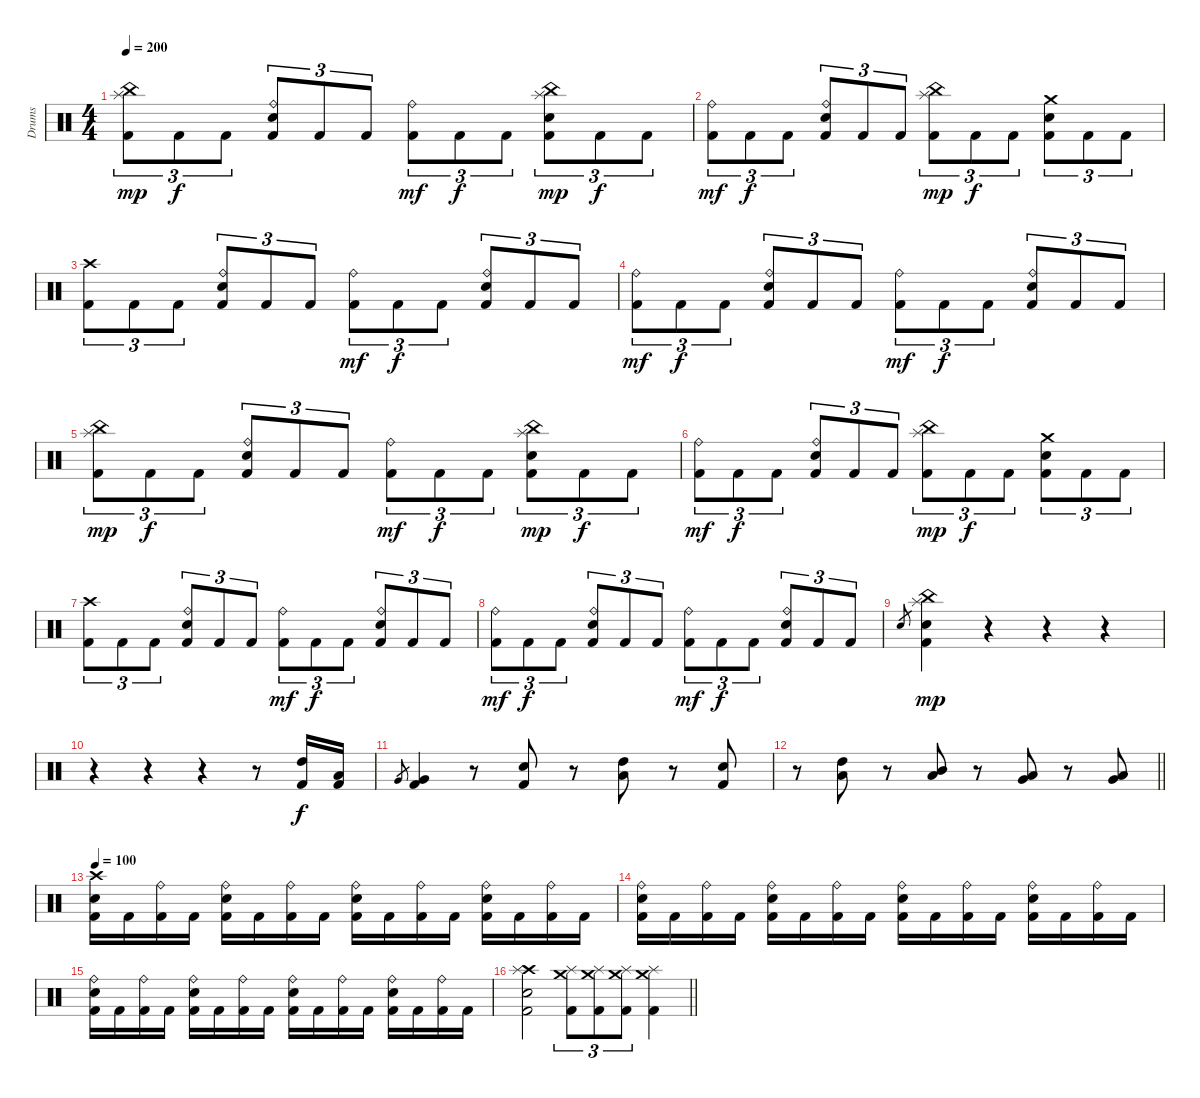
\track ("Drums" "Drums") {instrument percussion}
\staff {score}
\articulation defaults
\ts (4 4)
\tempo 200
\clef neutral
\ks c
("China (hit)" "Splash (hit)" "Kick (hit) 2").8{tu (3 2) dy mp} "Kick (hit) 2".8{tu (3 2) dy f} "Kick (hit) 2".8{tu (3 2)} ("Ride (bell)" "Electric Snare (hit)" "Kick (hit) 2").8{tu (3 2)} "Kick (hit) 2".8{tu (3 2)} "Kick (hit) 2".8{tu (3 2)} ("Ride (bell)" "Kick (hit) 2").8{tu (3 2) dy mf} "Kick (hit) 2".8{tu (3 2) dy f} "Kick (hit) 2".8{tu (3 2)} ("China (hit)" "Splash (hit)" "Electric Snare (hit)" "Kick (hit) 2").8{tu (3 2) dy mp} "Kick (hit) 2".8{tu (3 2) dy f} "Kick (hit) 2".8{tu (3 2)} |
("Ride (bell)" "Kick (hit) 2").8{tu (3 2) dy mf} "Kick (hit) 2".8{tu (3 2) dy f} "Kick (hit) 2".8{tu (3 2)} ("Ride (bell)" "Electric Snare (hit)" "Kick (hit) 2").8{tu (3 2)} "Kick (hit) 2".8{tu (3 2)} "Kick (hit) 2".8{tu (3 2)} ("China (hit)" "Splash (hit)" "Kick (hit) 2").8{tu (3 2) dy mp} "Kick (hit) 2".8{tu (3 2) dy f} "Kick (hit) 2".8{tu (3 2)} ("Crash medium (hit)" "Electric Snare (hit)" "Kick (hit) 2").8{tu (3 2)} "Kick (hit) 2".8{tu (3 2)} "Kick (hit) 2".8{tu (3 2)} |
("Crash high (hit)" "Kick (hit) 2").8{tu (3 2)} "Kick (hit) 2".8{tu (3 2)} "Kick (hit) 2".8{tu (3 2)} ("Ride (bell)" "Electric Snare (hit)" "Kick (hit) 2").8{tu (3 2)} "Kick (hit) 2".8{tu (3 2)} "Kick (hit) 2".8{tu (3 2)} ("Ride (bell)" "Kick (hit) 2").8{tu (3 2) dy mf} "Kick (hit) 2".8{tu (3 2) dy f} "Kick (hit) 2".8{tu (3 2)} ("Ride (bell)" "Electric Snare (hit)" "Kick (hit) 2").8{tu (3 2)} "Kick (hit) 2".8{tu (3 2)} "Kick (hit) 2".8{tu (3 2)} |
("Ride (bell)" "Kick (hit) 2").8{tu (3 2) dy mf} "Kick (hit) 2".8{tu (3 2) dy f} "Kick (hit) 2".8{tu (3 2)} ("Ride (bell)" "Electric Snare (hit)" "Kick (hit) 2").8{tu (3 2)} "Kick (hit) 2".8{tu (3 2)} "Kick (hit) 2".8{tu (3 2)} ("Ride (bell)" "Kick (hit) 2").8{tu (3 2) dy mf} "Kick (hit) 2".8{tu (3 2) dy f} "Kick (hit) 2".8{tu (3 2)} ("Ride (bell)" "Electric Snare (hit)" "Kick (hit) 2").8{tu (3 2)} "Kick (hit) 2".8{tu (3 2)} "Kick (hit) 2".8{tu (3 2)} |
("China (hit)" "Splash (hit)" "Kick (hit) 2").8{tu (3 2) dy mp} "Kick (hit) 2".8{tu (3 2) dy f} "Kick (hit) 2".8{tu (3 2)} ("Ride (bell)" "Electric Snare (hit)" "Kick (hit) 2").8{tu (3 2)} "Kick (hit) 2".8{tu (3 2)} "Kick (hit) 2".8{tu (3 2)} ("Ride (bell)" "Kick (hit) 2").8{tu (3 2) dy mf} "Kick (hit) 2".8{tu (3 2) dy f} "Kick (hit) 2".8{tu (3 2)} ("China (hit)" "Splash (hit)" "Electric Snare (hit)" "Kick (hit) 2").8{tu (3 2) dy mp} "Kick (hit) 2".8{tu (3 2) dy f} "Kick (hit) 2".8{tu (3 2)} |
("Ride (bell)" "Kick (hit) 2").8{tu (3 2) dy mf} "Kick (hit) 2".8{tu (3 2) dy f} "Kick (hit) 2".8{tu (3 2)} ("Ride (bell)" "Electric Snare (hit)" "Kick (hit) 2").8{tu (3 2)} "Kick (hit) 2".8{tu (3 2)} "Kick (hit) 2".8{tu (3 2)} ("China (hit)" "Splash (hit)" "Kick (hit) 2").8{tu (3 2) dy mp} "Kick (hit) 2".8{tu (3 2) dy f} "Kick (hit) 2".8{tu (3 2)} ("Crash medium (hit)" "Electric Snare (hit)" "Kick (hit) 2").8{tu (3 2)} "Kick (hit) 2".8{tu (3 2)} "Kick (hit) 2".8{tu (3 2)} |
("Crash high (hit)" "Kick (hit) 2").8{tu (3 2)} "Kick (hit) 2".8{tu (3 2)} "Kick (hit) 2".8{tu (3 2)} ("Ride (bell)" "Electric Snare (hit)" "Kick (hit) 2").8{tu (3 2)} "Kick (hit) 2".8{tu (3 2)} "Kick (hit) 2".8{tu (3 2)} ("Ride (bell)" "Kick (hit) 2").8{tu (3 2) dy mf} "Kick (hit) 2".8{tu (3 2) dy f} "Kick (hit) 2".8{tu (3 2)} ("Ride (bell)" "Electric Snare (hit)" "Kick (hit) 2").8{tu (3 2)} "Kick (hit) 2".8{tu (3 2)} "Kick (hit) 2".8{tu (3 2)} |
("Ride (bell)" "Kick (hit) 2").8{tu (3 2) dy mf} "Kick (hit) 2".8{tu (3 2) dy f} "Kick (hit) 2".8{tu (3 2)} ("Ride (bell)" "Electric Snare (hit)" "Kick (hit) 2").8{tu (3 2)} "Kick (hit) 2".8{tu (3 2)} "Kick (hit) 2".8{tu (3 2)} ("Ride (bell)" "Kick (hit) 2").8{tu (3 2) dy mf} "Kick (hit) 2".8{tu (3 2) dy f} "Kick (hit) 2".8{tu (3 2)} ("Ride (bell)" "Electric Snare (hit)" "Kick (hit) 2").8{tu (3 2)} "Kick (hit) 2".8{tu (3 2)} "Kick (hit) 2".8{tu (3 2)} |
"Electric Snare (hit)".8{gr} ("China (hit)" "Splash (hit)" "Electric Snare (hit)" "Kick (hit) 2").4{dy mp} r.4 r.4 r.4 |
r.4 r.4 r.4 r.8 ("High Tom (hit)" "Kick (hit) 2").16{dy f} ("Low Tom (hit)" "Kick (hit) 2").16 |
"Very Low Tom (hit)".8{gr} ("Very Low Tom (hit)" "Kick (hit) 2").4 r.8 ("Electric Snare (hit)" "Kick (hit) 2").8 r.8 ("High Tom (hit)" "Low Tom (hit)").8 r.8 ("Electric Snare (hit)" "Kick (hit) 2").8 |
\barLineRight lightlight
r.8 ("High Tom (hit)" "Low Tom (hit)").8 r.8 ("Mid Tom (hit)" "Low Tom (hit)").8 r.8 ("Low Tom (hit)" "Very Low Tom (hit)").8 r.8 ("Very Low Tom (hit)" "Low Floor Tom (hit)").8 |
\tempo 100
("Crash high (hit)" "Electric Snare (hit)" "Kick (hit) 2").16 "Kick (hit) 2".16 ("Ride (bell)" "Kick (hit) 2").16 "Kick (hit) 2".16 ("Ride (bell)" "Electric Snare (hit)" "Kick (hit) 2").16 "Kick (hit) 2".16 ("Ride (bell)" "Kick (hit) 2").16 "Kick (hit) 2".16 ("Ride (bell)" "Electric Snare (hit)" "Kick (hit) 2").16 "Kick (hit) 2".16 ("Ride (bell)" "Kick (hit) 2").16 "Kick (hit) 2".16 ("Ride (bell)" "Electric Snare (hit)" "Kick (hit) 2").16 "Kick (hit) 2".16 ("Ride (bell)" "Kick (hit) 2").16 "Kick (hit) 2".16 |
("Ride (bell)" "Electric Snare (hit)" "Kick (hit) 2").16 "Kick (hit) 2".16 ("Ride (bell)" "Kick (hit) 2").16 "Kick (hit) 2".16 ("Ride (bell)" "Electric Snare (hit)" "Kick (hit) 2").16 "Kick (hit) 2".16 ("Ride (bell)" "Kick (hit) 2").16 "Kick (hit) 2".16 ("Ride (bell)" "Electric Snare (hit)" "Kick (hit) 2").16 "Kick (hit) 2".16 ("Ride (bell)" "Kick (hit) 2").16 "Kick (hit) 2".16 ("Ride (bell)" "Electric Snare (hit)" "Kick (hit) 2").16 "Kick (hit) 2".16 ("Ride (bell)" "Kick (hit) 2").16 "Kick (hit) 2".16 |
("Ride (bell)" "Electric Snare (hit)" "Kick (hit) 2").16 "Kick (hit) 2".16 ("Ride (bell)" "Kick (hit) 2").16 "Kick (hit) 2".16 ("Ride (bell)" "Electric Snare (hit)" "Kick (hit) 2").16 "Kick (hit) 2".16 ("Ride (bell)" "Kick (hit) 2").16 "Kick (hit) 2".16 ("Ride (bell)" "Electric Snare (hit)" "Kick (hit) 2").16 "Kick (hit) 2".16 ("Ride (bell)" "Kick (hit) 2").16 "Kick (hit) 2".16 ("Ride (bell)" "Electric Snare (hit)" "Kick (hit) 2").16 "Kick (hit) 2".16 ("Ride (bell)" "Kick (hit) 2").16 "Kick (hit) 2".16 |
\barLineRight lightlight
("Crash high (hit)" "Splash (hit)" "Electric Snare (hit)" "Kick (hit) 2").2 ("Crash medium (hit)" "Splash (hit)" "Kick (hit) 2").8{tu (3 2)} ("Crash medium (hit)" "Splash (hit)" "Kick (hit) 2").8{tu (3 2)} ("Crash medium (hit)" "Splash (hit)" "Kick (hit) 2").8{tu (3 2)} ("Crash medium (hit)" "Splash (hit)" "Kick (hit) 2").4
